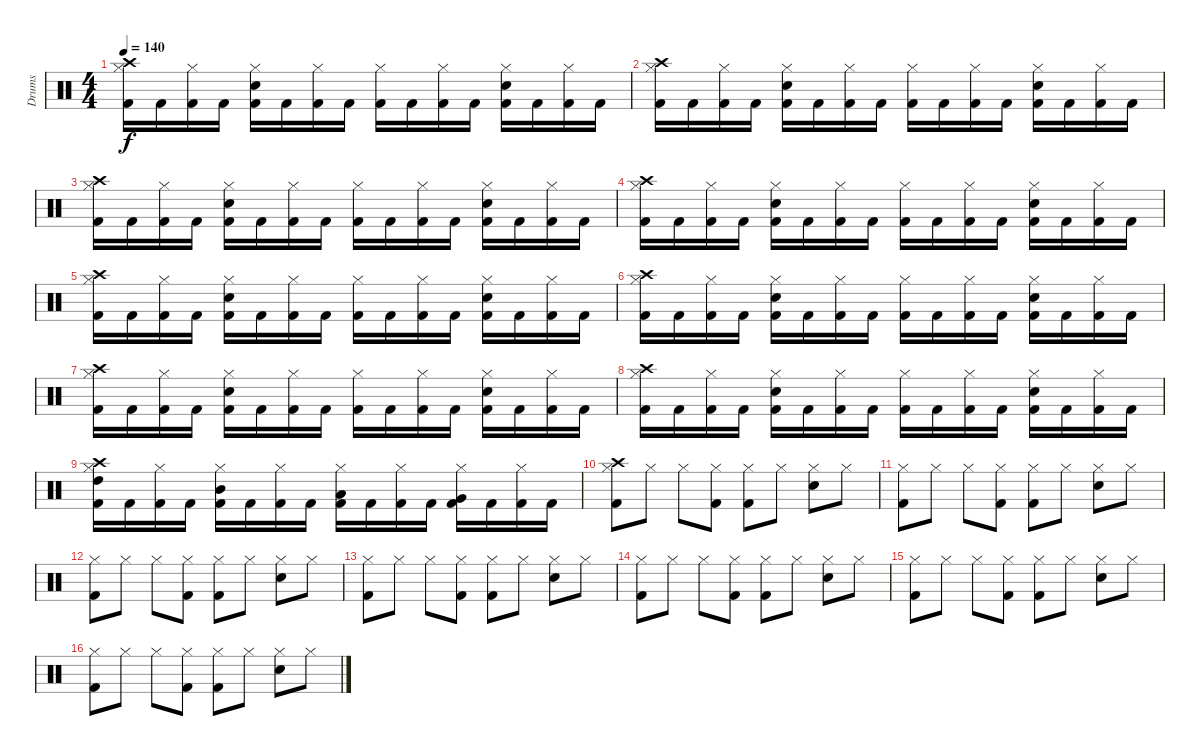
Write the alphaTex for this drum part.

\track ("Drums" "Drums") {instrument percussion}
\staff {score}
\articulation defaults
\ts (4 4)
\tempo 140
\clef neutral
\ks c
("Hi-Hat (closed)" "Crash high (hit)" "Kick (hit) 2").16{dy f} "Kick (hit) 2".16 ("Hi-Hat (closed)" "Kick (hit) 2").16 "Kick (hit) 2".16 ("Hi-Hat (closed)" "Electric Snare (hit)" "Kick (hit) 2").16 "Kick (hit) 2".16 ("Hi-Hat (closed)" "Kick (hit) 2").16 "Kick (hit) 2".16 ("Hi-Hat (closed)" "Kick (hit) 2").16 "Kick (hit) 2".16 ("Hi-Hat (closed)" "Kick (hit) 2").16 "Kick (hit) 2".16 ("Hi-Hat (closed)" "Electric Snare (hit)" "Kick (hit) 2").16 "Kick (hit) 2".16 ("Hi-Hat (closed)" "Kick (hit) 2").16 "Kick (hit) 2".16 |
("Hi-Hat (closed)" "Crash high (hit)" "Kick (hit) 2").16 "Kick (hit) 2".16 ("Hi-Hat (closed)" "Kick (hit) 2").16 "Kick (hit) 2".16 ("Hi-Hat (closed)" "Electric Snare (hit)" "Kick (hit) 2").16 "Kick (hit) 2".16 ("Hi-Hat (closed)" "Kick (hit) 2").16 "Kick (hit) 2".16 ("Hi-Hat (closed)" "Kick (hit) 2").16 "Kick (hit) 2".16 ("Hi-Hat (closed)" "Kick (hit) 2").16 "Kick (hit) 2".16 ("Hi-Hat (closed)" "Electric Snare (hit)" "Kick (hit) 2").16 "Kick (hit) 2".16 ("Hi-Hat (closed)" "Kick (hit) 2").16 "Kick (hit) 2".16 |
("Hi-Hat (closed)" "Crash high (hit)" "Kick (hit) 2").16 "Kick (hit) 2".16 ("Hi-Hat (closed)" "Kick (hit) 2").16 "Kick (hit) 2".16 ("Hi-Hat (closed)" "Electric Snare (hit)" "Kick (hit) 2").16 "Kick (hit) 2".16 ("Hi-Hat (closed)" "Kick (hit) 2").16 "Kick (hit) 2".16 ("Hi-Hat (closed)" "Kick (hit) 2").16 "Kick (hit) 2".16 ("Hi-Hat (closed)" "Kick (hit) 2").16 "Kick (hit) 2".16 ("Hi-Hat (closed)" "Electric Snare (hit)" "Kick (hit) 2").16 "Kick (hit) 2".16 ("Hi-Hat (closed)" "Kick (hit) 2").16 "Kick (hit) 2".16 |
("Hi-Hat (closed)" "Crash high (hit)" "Kick (hit) 2").16 "Kick (hit) 2".16 ("Hi-Hat (closed)" "Kick (hit) 2").16 "Kick (hit) 2".16 ("Hi-Hat (closed)" "Electric Snare (hit)" "Kick (hit) 2").16 "Kick (hit) 2".16 ("Hi-Hat (closed)" "Kick (hit) 2").16 "Kick (hit) 2".16 ("Hi-Hat (closed)" "Kick (hit) 2").16 "Kick (hit) 2".16 ("Hi-Hat (closed)" "Kick (hit) 2").16 "Kick (hit) 2".16 ("Hi-Hat (closed)" "Electric Snare (hit)" "Kick (hit) 2").16 "Kick (hit) 2".16 ("Hi-Hat (closed)" "Kick (hit) 2").16 "Kick (hit) 2".16 |
("Hi-Hat (closed)" "Crash high (hit)" "Kick (hit) 2").16 "Kick (hit) 2".16 ("Hi-Hat (closed)" "Kick (hit) 2").16 "Kick (hit) 2".16 ("Hi-Hat (closed)" "Electric Snare (hit)" "Kick (hit) 2").16 "Kick (hit) 2".16 ("Hi-Hat (closed)" "Kick (hit) 2").16 "Kick (hit) 2".16 ("Hi-Hat (closed)" "Kick (hit) 2").16 "Kick (hit) 2".16 ("Hi-Hat (closed)" "Kick (hit) 2").16 "Kick (hit) 2".16 ("Hi-Hat (closed)" "Electric Snare (hit)" "Kick (hit) 2").16 "Kick (hit) 2".16 ("Hi-Hat (closed)" "Kick (hit) 2").16 "Kick (hit) 2".16 |
("Hi-Hat (closed)" "Crash high (hit)" "Kick (hit) 2").16 "Kick (hit) 2".16 ("Hi-Hat (closed)" "Kick (hit) 2").16 "Kick (hit) 2".16 ("Hi-Hat (closed)" "Electric Snare (hit)" "Kick (hit) 2").16 "Kick (hit) 2".16 ("Hi-Hat (closed)" "Kick (hit) 2").16 "Kick (hit) 2".16 ("Hi-Hat (closed)" "Kick (hit) 2").16 "Kick (hit) 2".16 ("Hi-Hat (closed)" "Kick (hit) 2").16 "Kick (hit) 2".16 ("Hi-Hat (closed)" "Electric Snare (hit)" "Kick (hit) 2").16 "Kick (hit) 2".16 ("Hi-Hat (closed)" "Kick (hit) 2").16 "Kick (hit) 2".16 |
("Hi-Hat (closed)" "Crash high (hit)" "Kick (hit) 2").16 "Kick (hit) 2".16 ("Hi-Hat (closed)" "Kick (hit) 2").16 "Kick (hit) 2".16 ("Hi-Hat (closed)" "Electric Snare (hit)" "Kick (hit) 2").16 "Kick (hit) 2".16 ("Hi-Hat (closed)" "Kick (hit) 2").16 "Kick (hit) 2".16 ("Hi-Hat (closed)" "Kick (hit) 2").16 "Kick (hit) 2".16 ("Hi-Hat (closed)" "Kick (hit) 2").16 "Kick (hit) 2".16 ("Hi-Hat (closed)" "Electric Snare (hit)" "Kick (hit) 2").16 "Kick (hit) 2".16 ("Hi-Hat (closed)" "Kick (hit) 2").16 "Kick (hit) 2".16 |
("Hi-Hat (closed)" "Crash high (hit)" "Kick (hit) 2").16 "Kick (hit) 2".16 ("Hi-Hat (closed)" "Kick (hit) 2").16 "Kick (hit) 2".16 ("Hi-Hat (closed)" "Electric Snare (hit)" "Kick (hit) 2").16 "Kick (hit) 2".16 ("Hi-Hat (closed)" "Kick (hit) 2").16 "Kick (hit) 2".16 ("Hi-Hat (closed)" "Kick (hit) 2").16 "Kick (hit) 2".16 ("Hi-Hat (closed)" "Kick (hit) 2").16 "Kick (hit) 2".16 ("Hi-Hat (closed)" "Electric Snare (hit)" "Kick (hit) 2").16 "Kick (hit) 2".16 ("Hi-Hat (closed)" "Kick (hit) 2").16 "Kick (hit) 2".16 |
("Hi-Hat (closed)" "High Tom (hit)" "Crash high (hit)" "Kick (hit) 2").16 "Kick (hit) 2".16 ("Hi-Hat (closed)" "Kick (hit) 2").16 "Kick (hit) 2".16 ("Hi-Hat (closed)" "Mid Tom (hit)" "Kick (hit) 2").16 "Kick (hit) 2".16 ("Hi-Hat (closed)" "Kick (hit) 2").16 "Kick (hit) 2".16 ("Hi-Hat (closed)" "Low Tom (hit)" "Kick (hit) 2").16 "Kick (hit) 2".16 ("Hi-Hat (closed)" "Kick (hit) 2").16 "Kick (hit) 2".16 ("Hi-Hat (closed)" "Very Low Tom (hit)" "Kick (hit) 2").16 "Kick (hit) 2".16 ("Hi-Hat (closed)" "Kick (hit) 2").16 "Kick (hit) 2".16 |
("Crash high (hit)" "Hi-Hat (closed)" "Kick (hit) 2").8 "Hi-Hat (closed)".8 "Hi-Hat (closed)".8 ("Hi-Hat (closed)" "Kick (hit) 2").8 ("Hi-Hat (closed)" "Kick (hit) 2").8 "Hi-Hat (closed)".8 ("Hi-Hat (closed)" "Electric Snare (hit)").8 "Hi-Hat (closed)".8 |
("Hi-Hat (closed)" "Kick (hit) 2").8 "Hi-Hat (closed)".8 "Hi-Hat (closed)".8 ("Hi-Hat (closed)" "Kick (hit) 2").8 ("Hi-Hat (closed)" "Kick (hit) 2").8 "Hi-Hat (closed)".8 ("Hi-Hat (closed)" "Electric Snare (hit)").8 "Hi-Hat (closed)".8 |
("Hi-Hat (closed)" "Kick (hit) 2").8 "Hi-Hat (closed)".8 "Hi-Hat (closed)".8 ("Hi-Hat (closed)" "Kick (hit) 2").8 ("Hi-Hat (closed)" "Kick (hit) 2").8 "Hi-Hat (closed)".8 ("Hi-Hat (closed)" "Electric Snare (hit)").8 "Hi-Hat (closed)".8 |
("Hi-Hat (closed)" "Kick (hit) 2").8 "Hi-Hat (closed)".8 "Hi-Hat (closed)".8 ("Hi-Hat (closed)" "Kick (hit) 2").8 ("Hi-Hat (closed)" "Kick (hit) 2").8 "Hi-Hat (closed)".8 ("Hi-Hat (closed)" "Electric Snare (hit)").8 "Hi-Hat (closed)".8 |
("Hi-Hat (closed)" "Kick (hit) 2").8 "Hi-Hat (closed)".8 "Hi-Hat (closed)".8 ("Hi-Hat (closed)" "Kick (hit) 2").8 ("Hi-Hat (closed)" "Kick (hit) 2").8 "Hi-Hat (closed)".8 ("Hi-Hat (closed)" "Electric Snare (hit)").8 "Hi-Hat (closed)".8 |
("Hi-Hat (closed)" "Kick (hit) 2").8 "Hi-Hat (closed)".8 "Hi-Hat (closed)".8 ("Hi-Hat (closed)" "Kick (hit) 2").8 ("Hi-Hat (closed)" "Kick (hit) 2").8 "Hi-Hat (closed)".8 ("Hi-Hat (closed)" "Electric Snare (hit)").8 "Hi-Hat (closed)".8 |
("Hi-Hat (closed)" "Kick (hit) 2").8 "Hi-Hat (closed)".8 "Hi-Hat (closed)".8 ("Hi-Hat (closed)" "Kick (hit) 2").8 ("Hi-Hat (closed)" "Kick (hit) 2").8 "Hi-Hat (closed)".8 ("Hi-Hat (closed)" "Electric Snare (hit)").8 "Hi-Hat (closed)".8
